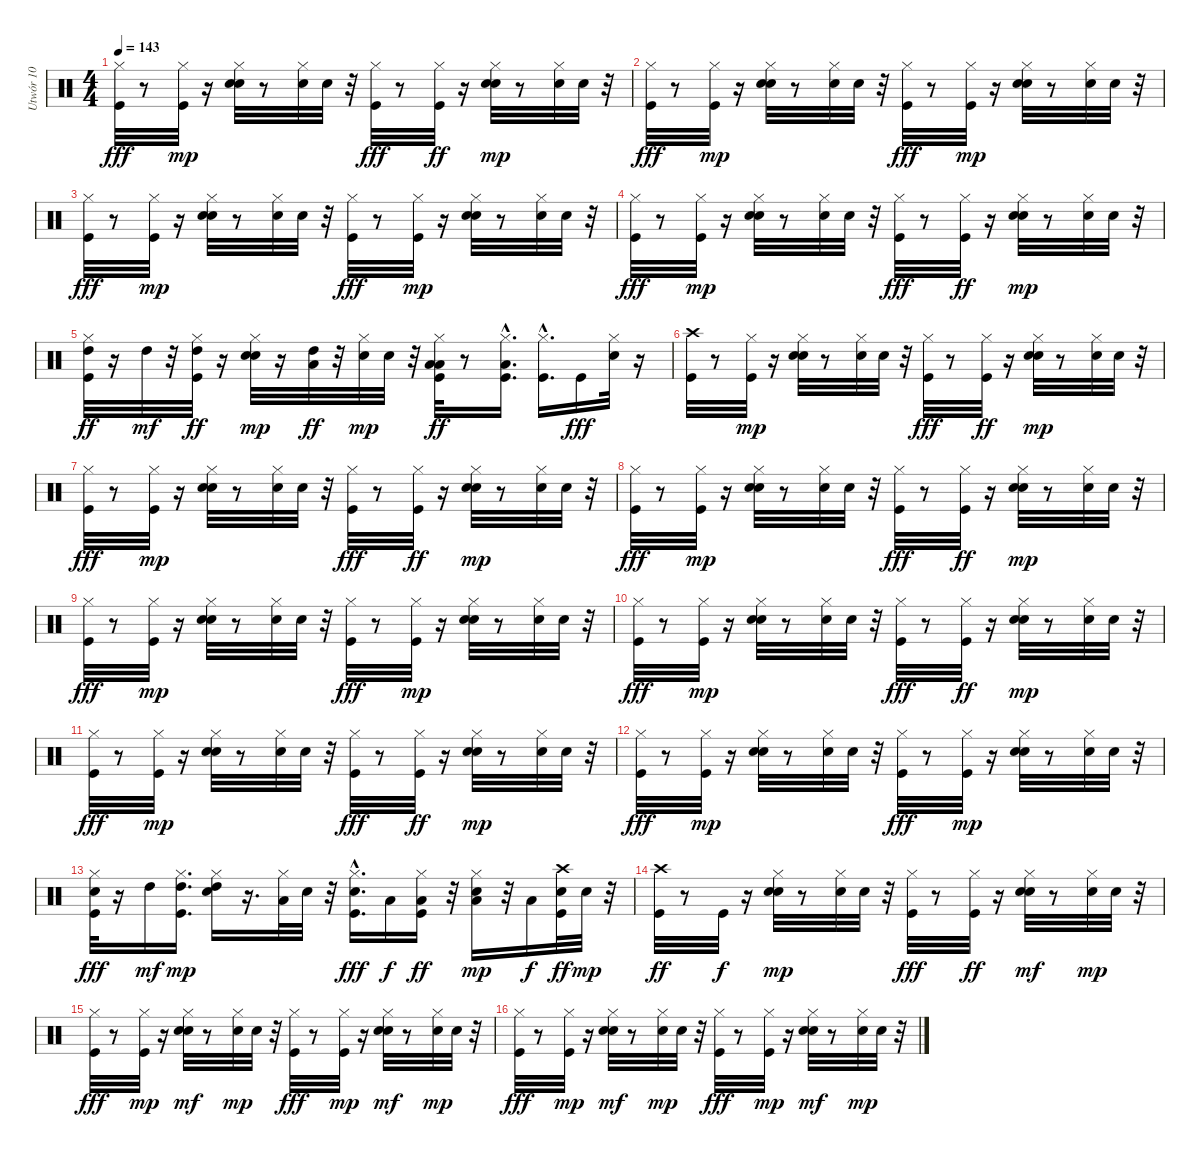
\track ("Utwór 10" "Utwór 10") {instrument percussion}
\staff {score}
\articulation defaults
\ts (4 4)
\tempo 143
\clef neutral
\ks c
("Hi-Hat (closed)" "Kick (hit)").32{dy fff} r.8 ("Hi-Hat (closed)" "Kick (hit)").32{dy mp} r.16 ("Snare (hit) 2" "Hi-Hat (closed)" "Hand Clap (hit)").32 r.8 ("Hi-Hat (closed)" "Snare (hit) 2").32 "Hand Clap (hit)".32 r.32 ("Kick (hit)" "Hi-Hat (closed)").32{dy fff} r.8 ("Hi-Hat (closed)" "Kick (hit)").32{dy ff} r.16 ("Snare (hit) 2" "Hi-Hat (closed)" "Hand Clap (hit)").32{dy mp} r.8 ("Hi-Hat (closed)" "Snare (hit) 2").32 "Hand Clap (hit)".32 r.32 |
("Kick (hit)" "Hi-Hat (closed)").32{dy fff} r.8 ("Hi-Hat (closed)" "Kick (hit)").32{dy mp} r.16 ("Snare (hit) 2" "Hi-Hat (closed)" "Hand Clap (hit)").32 r.8 ("Snare (hit) 2" "Hi-Hat (closed)").32 "Hand Clap (hit)".32 r.32 ("Kick (hit)" "Hi-Hat (closed)").32{dy fff} r.8 ("Kick (hit)" "Hi-Hat (closed)").32{dy mp} r.16 ("Hi-Hat (closed)" "Snare (hit) 2" "Hand Clap (hit)").32 r.8 ("Hi-Hat (closed)" "Snare (hit) 2").32 "Hand Clap (hit)".32 r.32 |
("Hi-Hat (closed)" "Kick (hit)").32{dy fff} r.8 ("Kick (hit)" "Hi-Hat (closed)").32{dy mp} r.16 ("Snare (hit) 2" "Hi-Hat (closed)" "Hand Clap (hit)").32 r.8 ("Snare (hit) 2" "Hi-Hat (closed)").32 "Hand Clap (hit)".32 r.32 ("Kick (hit)" "Hi-Hat (closed)").32{dy fff} r.8 ("Kick (hit)" "Hi-Hat (closed)").32{dy mp} r.16 ("Hi-Hat (closed)" "Snare (hit) 2" "Hand Clap (hit)").32 r.8 ("Snare (hit) 2" "Hi-Hat (closed)").32 "Hand Clap (hit)".32 r.32 |
("Kick (hit)" "Hi-Hat (closed)").32{dy fff} r.8 ("Kick (hit)" "Hi-Hat (closed)").32{dy mp} r.16 ("Snare (hit) 2" "Hi-Hat (closed)" "Hand Clap (hit)").32 r.8 ("Hi-Hat (closed)" "Snare (hit) 2").32 "Hand Clap (hit)".32 r.32 ("Hi-Hat (closed)" "Kick (hit)").32{dy fff} r.8 ("Hi-Hat (closed)" "Kick (hit)").32{dy ff} r.16 ("Hi-Hat (closed)" "Snare (hit) 2" "Hand Clap (hit)").32{dy mp} r.8 ("Hi-Hat (closed)" "Snare (hit) 2").32 "Hand Clap (hit)".32 r.32 |
("Hi-Hat (closed)" "Kick (hit)" "High Tom (hit)").32{dy ff} r.16 "High Tom (hit)".32{dy mf} r.32 ("Hi-Hat (closed)" "Kick (hit)" "High Tom (hit)").32{dy ff} r.16 ("Hi-Hat (closed)" "Snare (hit) 2" "Hand Clap (hit)").32{dy mp} r.16 ("Low Tom (hit)" "High Tom (hit)").32{dy ff} r.32 ("Hi-Hat (closed)" "Snare (hit) 2").32{dy mp} "Hand Clap (hit)".32 r.32 ("Low Floor Tom (hit)" "Kick (hit)" "Low Tom (hit)" "Hi-Hat (closed)").32{dy ff} r.8 ("Hi-Hat (closed)" "Low Floor Tom (hit)" "Kick (hit)"{hac}).16{d} ("Kick (hit)"{hac} "Hi-Hat (closed)").16{d} "Kick (hit)".16{dy fff} ("Hi-Hat (closed)" "Snare (hit) 2").32 r.16 |
("Crash high (hit)" "Kick (hit)").32 r.8 ("Hi-Hat (closed)" "Kick (hit)").32{dy mp} r.16 ("Hi-Hat (closed)" "Snare (hit) 2" "Hand Clap (hit)").32 r.8 ("Snare (hit) 2" "Hi-Hat (closed)").32 "Hand Clap (hit)".32 r.32 ("Kick (hit)" "Hi-Hat (closed)").32{dy fff} r.8 ("Hi-Hat (closed)" "Kick (hit)").32{dy ff} r.16 ("Hi-Hat (closed)" "Snare (hit) 2" "Hand Clap (hit)").32{dy mp} r.8 ("Snare (hit) 2" "Hi-Hat (closed)").32 "Hand Clap (hit)".32 r.32 |
("Hi-Hat (closed)" "Kick (hit)").32{dy fff} r.8 ("Hi-Hat (closed)" "Kick (hit)").32{dy mp} r.16 ("Hi-Hat (closed)" "Snare (hit) 2" "Hand Clap (hit)").32 r.8 ("Snare (hit) 2" "Hi-Hat (closed)").32 "Hand Clap (hit)".32 r.32 ("Kick (hit)" "Hi-Hat (closed)").32{dy fff} r.8 ("Hi-Hat (closed)" "Kick (hit)").32{dy ff} r.16 ("Snare (hit) 2" "Hi-Hat (closed)" "Hand Clap (hit)").32{dy mp} r.8 ("Hi-Hat (closed)" "Snare (hit) 2").32 "Hand Clap (hit)".32 r.32 |
("Kick (hit)" "Hi-Hat (closed)").32{dy fff} r.8 ("Hi-Hat (closed)" "Kick (hit)").32{dy mp} r.16 ("Snare (hit) 2" "Hi-Hat (closed)" "Hand Clap (hit)").32 r.8 ("Hi-Hat (closed)" "Snare (hit) 2").32 "Hand Clap (hit)".32 r.32 ("Kick (hit)" "Hi-Hat (closed)").32{dy fff} r.8 ("Hi-Hat (closed)" "Kick (hit)").32{dy ff} r.16 ("Snare (hit) 2" "Hi-Hat (closed)" "Hand Clap (hit)").32{dy mp} r.8 ("Hi-Hat (closed)" "Snare (hit) 2").32 "Hand Clap (hit)".32 r.32 |
("Kick (hit)" "Hi-Hat (closed)").32{dy fff} r.8 ("Kick (hit)" "Hi-Hat (closed)").32{dy mp} r.16 ("Snare (hit) 2" "Hi-Hat (closed)" "Hand Clap (hit)").32 r.8 ("Hi-Hat (closed)" "Snare (hit) 2").32 "Hand Clap (hit)".32 r.32 ("Hi-Hat (closed)" "Kick (hit)").32{dy fff} r.8 ("Kick (hit)" "Hi-Hat (closed)").32{dy mp} r.16 ("Hi-Hat (closed)" "Snare (hit) 2" "Hand Clap (hit)").32 r.8 ("Snare (hit) 2" "Hi-Hat (closed)").32 "Hand Clap (hit)".32 r.32 |
("Kick (hit)" "Hi-Hat (closed)").32{dy fff} r.8 ("Kick (hit)" "Hi-Hat (closed)").32{dy mp} r.16 ("Hi-Hat (closed)" "Snare (hit) 2" "Hand Clap (hit)").32 r.8 ("Hi-Hat (closed)" "Snare (hit) 2").32 "Hand Clap (hit)".32 r.32 ("Kick (hit)" "Hi-Hat (closed)").32{dy fff} r.8 ("Hi-Hat (closed)" "Kick (hit)").32{dy ff} r.16 ("Hi-Hat (closed)" "Snare (hit) 2" "Hand Clap (hit)").32{dy mp} r.8 ("Hi-Hat (closed)" "Snare (hit) 2").32 "Hand Clap (hit)".32 r.32 |
("Hi-Hat (closed)" "Kick (hit)").32{dy fff} r.8 ("Hi-Hat (closed)" "Kick (hit)").32{dy mp} r.16 ("Snare (hit) 2" "Hi-Hat (closed)" "Hand Clap (hit)").32 r.8 ("Hi-Hat (closed)" "Snare (hit) 2").32 "Hand Clap (hit)".32 r.32 ("Hi-Hat (closed)" "Kick (hit)").32{dy fff} r.8 ("Hi-Hat (closed)" "Kick (hit)").32{dy ff} r.16 ("Hi-Hat (closed)" "Snare (hit) 2" "Hand Clap (hit)").32{dy mp} r.8 ("Hi-Hat (closed)" "Snare (hit) 2").32 "Hand Clap (hit)".32 r.32 |
("Kick (hit)" "Hi-Hat (closed)").32{dy fff} r.8 ("Kick (hit)" "Hi-Hat (closed)").32{dy mp} r.16 ("Hi-Hat (closed)" "Snare (hit) 2" "Hand Clap (hit)").32 r.8 ("Snare (hit) 2" "Hi-Hat (closed)").32 "Hand Clap (hit)".32 r.32 ("Kick (hit)" "Hi-Hat (closed)").32{dy fff} r.8 ("Kick (hit)" "Hi-Hat (closed)").32{dy mp} r.16 ("Hi-Hat (closed)" "Snare (hit) 2" "Hand Clap (hit)").32 r.8 ("Hi-Hat (closed)" "Snare (hit) 2").32 "Hand Clap (hit)".32 r.32 |
("Hi-Hat (closed)" "Snare (hit) 2" "Kick (hit)").32{dy fff} r.16 "High Tom (hit)".16{dy mf} ("Hi-Hat (closed)" "Kick (hit)" "High Tom (hit)").16{d dy mp} ("High Tom (hit)" "Hi-Hat (closed)" "Hand Clap (hit)").16 r.16{d} ("Low Tom (hit)" "Hi-Hat (closed)").32 "Hand Clap (hit)".32 r.32 ("Snare (hit) 2" "Hi-Hat (closed)" "Kick (hit)"{hac}).16{d dy fff} "Low Tom (hit)".16{dy f} ("Hi-Hat (closed)" "Low Tom (hit)" "Kick (hit)").16{dy ff} r.32 ("Low Floor Tom (hit)" "Hi-Hat (closed)" "Hand Clap (hit)").16{dy mp} r.32 "Low Floor Tom (hit)".16{dy f} ("Crash high (hit)" "Snare (hit) 2" "Kick (hit)").32{dy ff} "Hand Clap (hit)".32{dy mp} r.32 |
("Kick (hit)" "Crash high (hit)").32{dy ff} r.8 "Kick (hit)".32{dy f} r.16 ("Hi-Hat (closed)" "Snare (hit) 2" "Hand Clap (hit)").32{dy mp} r.8 ("Hi-Hat (closed)" "Snare (hit) 2").32 "Hand Clap (hit)".32 r.32 ("Kick (hit)" "Hi-Hat (closed)").32{dy fff} r.8 ("Hi-Hat (closed)" "Kick (hit)").32{dy ff} r.16 ("Hi-Hat (closed)" "Snare (hit) 2" "Hand Clap (hit)").32{dy mf} r.8 ("Snare (hit) 2" "Hi-Hat (closed)").32{dy mp} "Hand Clap (hit)".32 r.32 |
("Hi-Hat (closed)" "Kick (hit)").32{dy fff} r.8 ("Kick (hit)" "Hi-Hat (closed)").32{dy mp} r.16 ("Snare (hit) 2" "Hi-Hat (closed)" "Hand Clap (hit)").32{dy mf} r.8 ("Snare (hit) 2" "Hi-Hat (closed)").32{dy mp} "Hand Clap (hit)".32 r.32 ("Hi-Hat (closed)" "Kick (hit)").32{dy fff} r.8 ("Kick (hit)" "Hi-Hat (closed)").32{dy mp} r.16 ("Snare (hit) 2" "Hi-Hat (closed)" "Hand Clap (hit)").32{dy mf} r.8 ("Hi-Hat (closed)" "Snare (hit) 2").32{dy mp} "Hand Clap (hit)".32 r.32 |
("Kick (hit)" "Hi-Hat (closed)").32{dy fff} r.8 ("Hi-Hat (closed)" "Kick (hit)").32{dy mp} r.16 ("Snare (hit) 2" "Hi-Hat (closed)" "Hand Clap (hit)").32{dy mf} r.8 ("Snare (hit) 2" "Hi-Hat (closed)").32{dy mp} "Hand Clap (hit)".32 r.32 ("Kick (hit)" "Hi-Hat (closed)").32{dy fff} r.8 ("Kick (hit)" "Hi-Hat (closed)").32{dy mp} r.16 ("Snare (hit) 2" "Hi-Hat (closed)" "Hand Clap (hit)").32{dy mf} r.8 ("Hi-Hat (closed)" "Snare (hit) 2").32{dy mp} "Hand Clap (hit)".32 r.32
